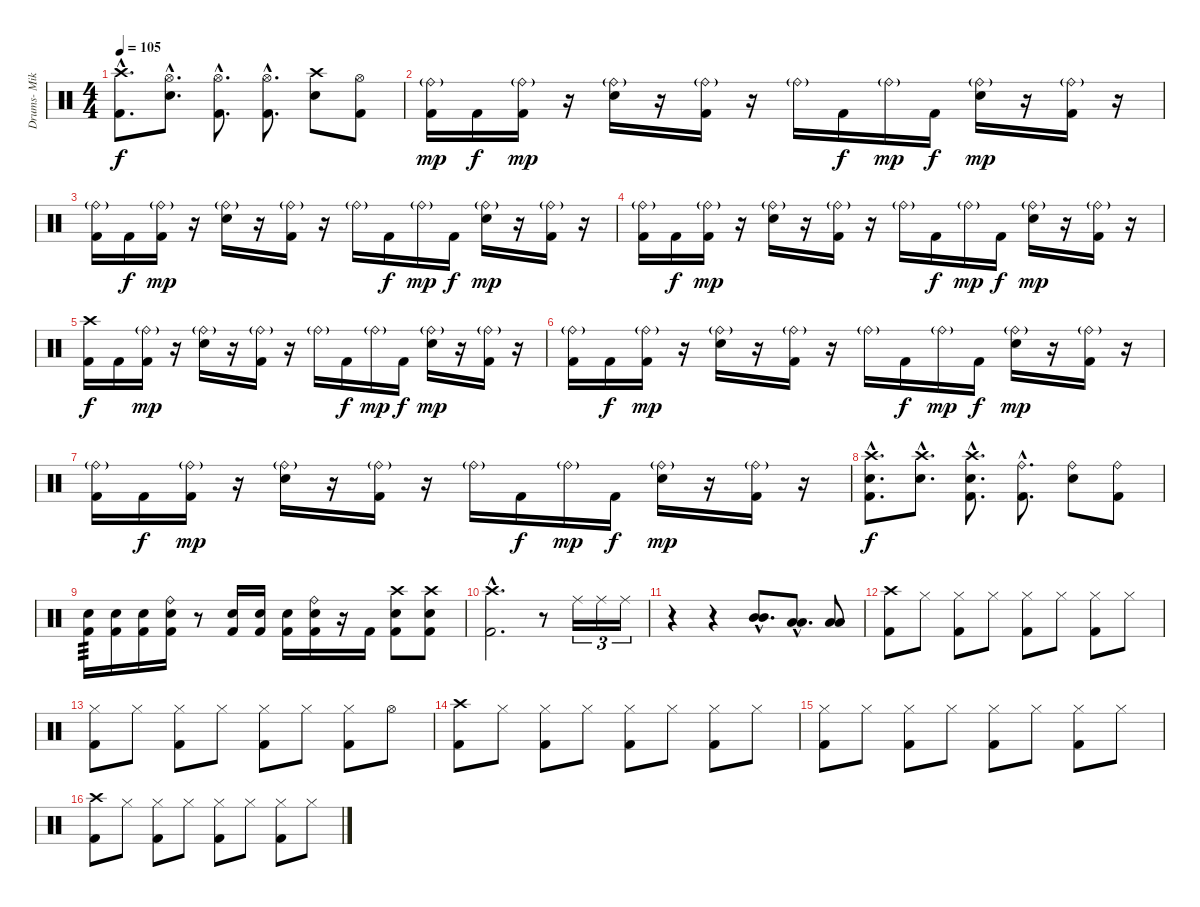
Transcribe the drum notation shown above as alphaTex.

\track ("Drums- Mike " "Drums- Mik") {instrument percussion}
\staff {score}
\articulation defaults
\ts (4 4)
\tempo 105
\clef neutral
\ks c
("Crash high (hit)"{hac} "Kick (hit) 2"{hac}).8{d dy f} ("Hi-Hat (open)"{hac} "Snare (hit) 2"{hac}).8{d} ("Hi-Hat (open)"{hac} "Kick (hit) 2"{hac}).8{d} ("Hi-Hat (open)"{hac} "Kick (hit) 2"{hac}).8{d} ("Crash high (hit)" "Snare (hit) 2").8 ("Hi-Hat (open)" "Kick (hit) 2").8 |
("Ride (bell)"{g} "Kick (hit) 2").16{dy mp} "Kick (hit) 2".16{dy f} ("Ride (bell)"{g} "Kick (hit) 2").16{dy mp} r.16 ("Ride (bell)"{g} "Snare (hit) 2").16 r.16 ("Ride (bell)"{g} "Kick (hit) 2").16 r.16 "Ride (bell)"{g}.16 "Kick (hit) 2".16{dy f} "Ride (bell)"{g}.16{dy mp} "Kick (hit) 2".16{dy f} ("Ride (bell)"{g} "Snare (hit) 2").16{dy mp} r.16 ("Ride (bell)"{g} "Kick (hit) 2").16 r.16 |
("Ride (bell)"{g} "Kick (hit) 2").16 "Kick (hit) 2".16{dy f} ("Ride (bell)"{g} "Kick (hit) 2").16{dy mp} r.16 ("Ride (bell)"{g} "Snare (hit) 2").16 r.16 ("Ride (bell)"{g} "Kick (hit) 2").16 r.16 "Ride (bell)"{g}.16 "Kick (hit) 2".16{dy f} "Ride (bell)"{g}.16{dy mp} "Kick (hit) 2".16{dy f} ("Ride (bell)"{g} "Snare (hit) 2").16{dy mp} r.16 ("Ride (bell)"{g} "Kick (hit) 2").16 r.16 |
("Ride (bell)"{g} "Kick (hit) 2").16 "Kick (hit) 2".16{dy f} ("Ride (bell)"{g} "Kick (hit) 2").16{dy mp} r.16 ("Ride (bell)"{g} "Snare (hit) 2").16 r.16 ("Ride (bell)"{g} "Kick (hit) 2").16 r.16 "Ride (bell)"{g}.16 "Kick (hit) 2".16{dy f} "Ride (bell)"{g}.16{dy mp} "Kick (hit) 2".16{dy f} ("Ride (bell)"{g} "Snare (hit) 2").16{dy mp} r.16 ("Ride (bell)"{g} "Kick (hit) 2").16 r.16 |
("Crash high (hit)" "Kick (hit) 2").16{dy f} "Kick (hit) 2".16 ("Ride (bell)"{g} "Kick (hit) 2").16{dy mp} r.16 ("Ride (bell)"{g} "Snare (hit) 2").16 r.16 ("Ride (bell)"{g} "Kick (hit) 2").16 r.16 "Ride (bell)"{g}.16 "Kick (hit) 2".16{dy f} "Ride (bell)"{g}.16{dy mp} "Kick (hit) 2".16{dy f} ("Ride (bell)"{g} "Snare (hit) 2").16{dy mp} r.16 ("Ride (bell)"{g} "Kick (hit) 2").16 r.16 |
("Ride (bell)"{g} "Kick (hit) 2").16 "Kick (hit) 2".16{dy f} ("Ride (bell)"{g} "Kick (hit) 2").16{dy mp} r.16 ("Ride (bell)"{g} "Snare (hit) 2").16 r.16 ("Ride (bell)"{g} "Kick (hit) 2").16 r.16 "Ride (bell)"{g}.16 "Kick (hit) 2".16{dy f} "Ride (bell)"{g}.16{dy mp} "Kick (hit) 2".16{dy f} ("Ride (bell)"{g} "Snare (hit) 2").16{dy mp} r.16 ("Ride (bell)"{g} "Kick (hit) 2").16 r.16 |
("Ride (bell)"{g} "Kick (hit) 2").16 "Kick (hit) 2".16{dy f} ("Ride (bell)"{g} "Kick (hit) 2").16{dy mp} r.16 ("Ride (bell)"{g} "Snare (hit) 2").16 r.16 ("Ride (bell)"{g} "Kick (hit) 2").16 r.16 "Ride (bell)"{g}.16 "Kick (hit) 2".16{dy f} "Ride (bell)"{g}.16{dy mp} "Kick (hit) 2".16{dy f} ("Ride (bell)"{g} "Snare (hit) 2").16{dy mp} r.16 ("Ride (bell)"{g} "Kick (hit) 2").16 r.16 |
("Crash high (hit)"{hac} "Snare (hit) 2"{hac} "Kick (hit) 2"{hac}).8{d dy f} ("Crash high (hit)"{hac} "Snare (hit) 2"{hac}).8{d} ("Crash high (hit)"{hac} "Snare (hit) 2"{hac} "Kick (hit) 2"{hac}).8{d} ("Ride (bell)"{hac} "Kick (hit) 2"{hac}).8{d} ("Ride (bell)" "Snare (hit) 2").8 ("Ride (bell)" "Kick (hit) 2").8 |
("Snare (hit) 2" "Kick (hit) 2").16{tp 3} ("Snare (hit) 2" "Kick (hit) 2").16 ("Snare (hit) 2" "Kick (hit) 2").16 ("Ride (bell)" "Snare (hit) 2" "Kick (hit) 2").16 r.8 ("Snare (hit) 2" "Kick (hit) 2").16 ("Snare (hit) 2" "Kick (hit) 2").16 ("Snare (hit) 2" "Kick (hit) 2").16 ("Ride (bell)" "Snare (hit) 2" "Kick (hit) 2").16 r.16 "Kick (hit) 2".16 ("Crash high (hit)" "Snare (hit) 2" "Kick (hit) 2").8 ("Crash high (hit)" "Snare (hit) 2" "Kick (hit) 2").8 |
("Crash high (hit)"{hac} "Kick (hit) 2"{hac}).2{d} r.8 "Ride (middle)".16{tu (3 2)} "Ride (middle)".16{tu (3 2)} "Ride (middle)".16{tu (3 2)} |
r.4 r.4 ("Mid Tom (hit)"{hac} "Mid Tom (hit)"{hac}).8{d} ("Low Tom (hit)"{hac} "Low Tom (hit)"{hac}).8{d} ("Low Floor Tom (hit)" "Low Floor Tom (hit)").8 |
("Crash high (hit)" "Kick (hit) 2").8 "Hi-Hat (closed)".8 ("Hi-Hat (closed)" "Kick (hit) 2").8 "Hi-Hat (closed)".8 ("Hi-Hat (closed)" "Kick (hit) 2").8 "Hi-Hat (closed)".8 ("Hi-Hat (closed)" "Kick (hit) 2").8 "Hi-Hat (closed)".8 |
("Hi-Hat (closed)" "Kick (hit) 2").8 "Hi-Hat (closed)".8 ("Hi-Hat (closed)" "Kick (hit) 2").8 "Hi-Hat (closed)".8 ("Hi-Hat (closed)" "Kick (hit) 2").8 "Hi-Hat (closed)".8 ("Hi-Hat (closed)" "Kick (hit) 2").8 "Hi-Hat (open)".8 |
("Crash high (hit)" "Kick (hit) 2").8 "Hi-Hat (closed)".8 ("Hi-Hat (closed)" "Kick (hit) 2").8 "Hi-Hat (closed)".8 ("Hi-Hat (closed)" "Kick (hit) 2").8 "Hi-Hat (closed)".8 ("Hi-Hat (closed)" "Kick (hit) 2").8 "Hi-Hat (closed)".8 |
("Hi-Hat (closed)" "Kick (hit) 2").8 "Hi-Hat (closed)".8 ("Hi-Hat (closed)" "Kick (hit) 2").8 "Hi-Hat (closed)".8 ("Hi-Hat (closed)" "Kick (hit) 2").8 "Hi-Hat (closed)".8 ("Hi-Hat (closed)" "Kick (hit) 2").8 "Hi-Hat (closed)".8 |
("Crash high (hit)" "Kick (hit) 2").8 "Hi-Hat (closed)".8 ("Hi-Hat (closed)" "Kick (hit) 2").8 "Hi-Hat (closed)".8 ("Hi-Hat (closed)" "Kick (hit) 2").8 "Hi-Hat (closed)".8 ("Hi-Hat (closed)" "Kick (hit) 2").8 "Hi-Hat (closed)".8
